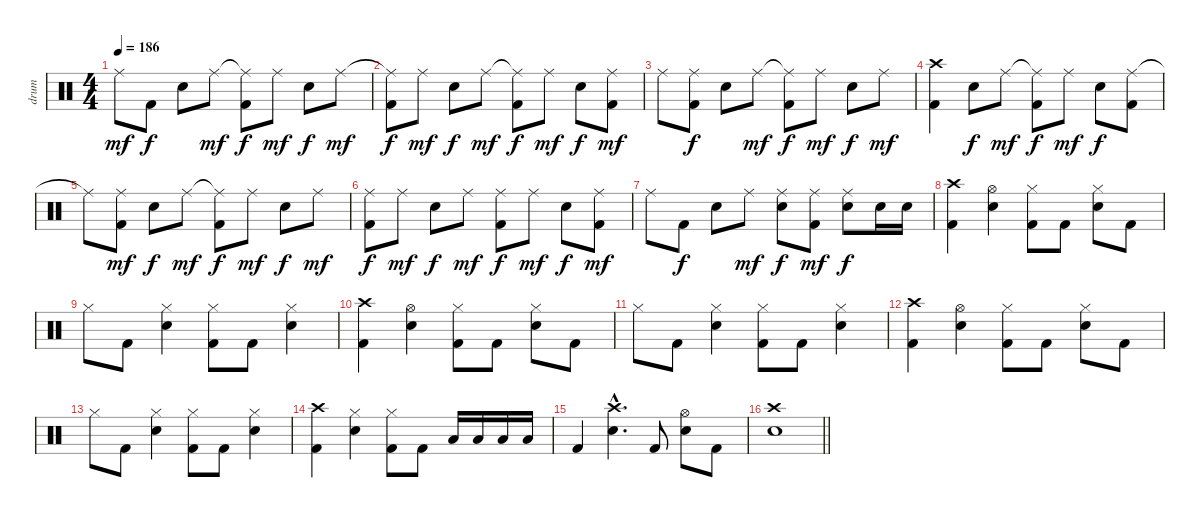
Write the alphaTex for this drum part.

\track ("drum" "drum") {instrument percussion}
\staff {score}
\articulation defaults
\ts (4 4)
\tempo 186
\clef neutral
\ks c "Ride (middle)".8{dy mf} "Kick (hit) 2".8{dy f} "Snare (hit) 2".8 "Ride (middle)".8{dy mf}
("Ride (middle)"{t} "Kick (hit) 2").8{dy f} "Ride (middle)".8{dy mf} "Snare (hit) 2".8{dy f} "Ride (middle)".8{dy mf} |
("Ride (middle)"{t} "Kick (hit) 2").8{dy f} "Ride (middle)".8{dy mf} "Snare (hit) 2".8{dy f} "Ride (middle)".8{dy mf} ("Ride (middle)"{t} "Kick (hit) 2").8{dy f} "Ride (middle)".8{dy mf} "Snare (hit) 2".8{dy f} ("Ride (middle)" "Kick (hit) 2").8{dy mf} |
"Ride (middle)".8 ("Ride (middle)" "Kick (hit) 2").8{dy f} "Snare (hit) 2".8 "Ride (middle)".8{dy mf} ("Ride (middle)"{t} "Kick (hit) 2").8{dy f} "Ride (middle)".8{dy mf} "Snare (hit) 2".8{dy f} "Ride (middle)".8{dy mf} |
("Crash high (hit)" "Kick (hit) 2").4 "Snare (hit) 2".8{dy f} "Ride (middle)".8{dy mf} ("Ride (middle)"{t} "Kick (hit) 2").8{dy f} "Ride (middle)".8{dy mf} "Snare (hit) 2".8{dy f} ("Ride (middle)" "Kick (hit) 2").8 |
"Ride (middle)"{t}.8 ("Ride (middle)" "Kick (hit) 2").8{dy mf} "Snare (hit) 2".8{dy f} "Ride (middle)".8{dy mf} ("Ride (middle)"{t} "Kick (hit) 2").8{dy f} "Ride (middle)".8{dy mf} "Snare (hit) 2".8{dy f} "Ride (middle)".8{dy mf} |
("Ride (middle)" "Kick (hit) 2").8{dy f} "Ride (middle)".8{dy mf} "Snare (hit) 2".8{dy f} "Ride (middle)".8{dy mf} ("Ride (middle)" "Kick (hit) 2").8{dy f} "Ride (middle)".8{dy mf} "Snare (hit) 2".8{dy f} ("Ride (middle)" "Kick (hit) 2").8{dy mf} |
"Ride (middle)".8 "Kick (hit) 2".8{dy f} "Snare (hit) 2".8 "Ride (middle)".8{dy mf} ("Ride (middle)" "Snare (hit) 2").8{dy f} ("Ride (middle)" "Kick (hit) 2").8{dy mf} ("Ride (middle)" "Snare (hit) 2").8{dy f} "Snare (hit) 2".16 "Snare (hit) 2".16 |
("Crash high (hit)" "Kick (hit) 2").4 ("Hi-Hat (open)" "Snare (hit) 2").4 ("Hi-Hat (closed)" "Kick (hit) 2").8 "Kick (hit) 2".8 ("Hi-Hat (closed)" "Snare (hit) 2").8 "Kick (hit) 2".8 |
"Hi-Hat (closed)".8 "Kick (hit) 2".8 ("Hi-Hat (closed)" "Snare (hit) 2").4 ("Hi-Hat (closed)" "Kick (hit) 2").8 "Kick (hit) 2".8 ("Hi-Hat (closed)" "Snare (hit) 2").4 |
("Crash high (hit)" "Kick (hit) 2").4 ("Hi-Hat (open)" "Snare (hit) 2").4 ("Hi-Hat (closed)" "Kick (hit) 2").8 "Kick (hit) 2".8 ("Hi-Hat (closed)" "Snare (hit) 2").8 "Kick (hit) 2".8 |
"Hi-Hat (closed)".8 "Kick (hit) 2".8 ("Hi-Hat (closed)" "Snare (hit) 2").4 ("Hi-Hat (closed)" "Kick (hit) 2").8 "Kick (hit) 2".8 ("Hi-Hat (closed)" "Snare (hit) 2").4 |
("Crash high (hit)" "Kick (hit) 2").4 ("Hi-Hat (open)" "Snare (hit) 2").4 ("Hi-Hat (closed)" "Kick (hit) 2").8 "Kick (hit) 2".8 ("Hi-Hat (closed)" "Snare (hit) 2").8 "Kick (hit) 2".8 |
"Hi-Hat (closed)".8 "Kick (hit) 2".8 ("Hi-Hat (closed)" "Snare (hit) 2").4 ("Hi-Hat (closed)" "Kick (hit) 2").8 "Kick (hit) 2".8 ("Hi-Hat (closed)" "Snare (hit) 2").4 |
("Crash high (hit)" "Kick (hit) 2").4 ("Hi-Hat (closed)" "Snare (hit) 2").4 ("Hi-Hat (closed)" "Kick (hit) 2").8 "Kick (hit) 2".8 "Low Floor Tom (hit)".16 "Low Floor Tom (hit)".16 "Low Floor Tom (hit)".16 "Low Floor Tom (hit)".16 |
"Kick (hit) 2".4 ("Crash high (hit)"{hac} "Snare (hit) 2"{hac}).4{d} "Kick (hit) 2".8 ("Hi-Hat (open)" "Snare (hit) 2").8 "Kick (hit) 2".8 |
\barLineRight lightlight
("Crash high (hit)" "Snare (hit) 2").1
